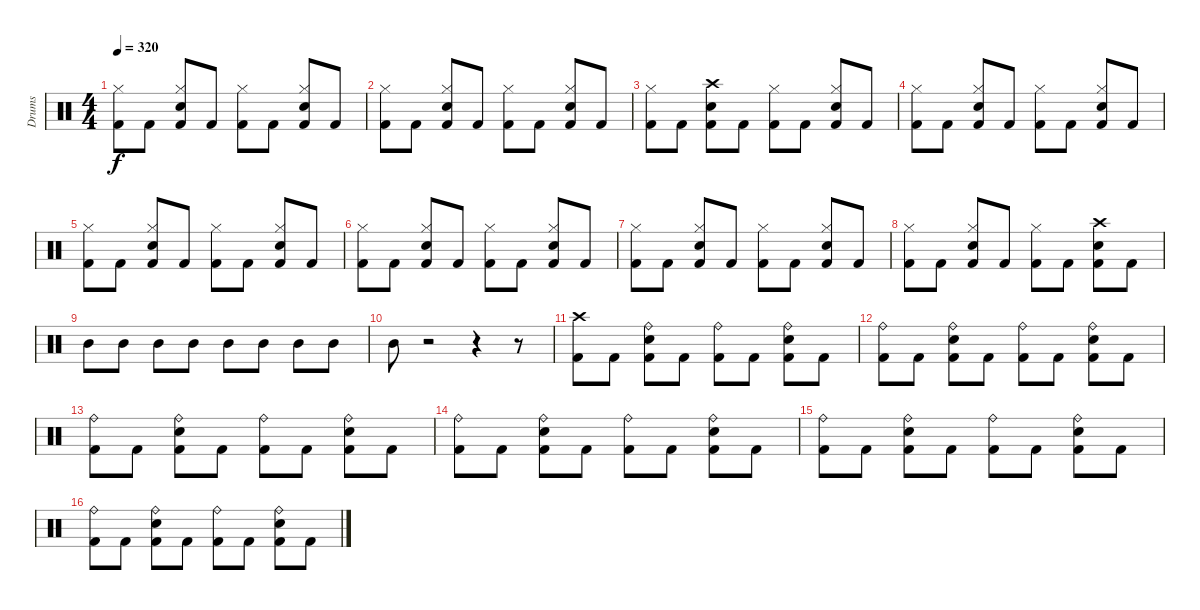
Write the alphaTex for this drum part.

\track ("Drums" "Drums") {instrument percussion}
\staff {score}
\articulation defaults
\ts (4 4)
\tempo 320
\clef neutral
\ks c
("Kick (hit) 2" "Hi-Hat (closed)").8{dy f} "Kick (hit) 2".8 ("Snare (hit) 2" "Hi-Hat (closed)" "Kick (hit) 2").8 "Kick (hit) 2".8 ("Kick (hit) 2" "Hi-Hat (closed)").8 "Kick (hit) 2".8 ("Kick (hit) 2" "Hi-Hat (closed)" "Snare (hit) 2").8 "Kick (hit) 2".8 |
("Kick (hit) 2" "Hi-Hat (closed)").8 "Kick (hit) 2".8 ("Snare (hit) 2" "Kick (hit) 2" "Hi-Hat (closed)").8 "Kick (hit) 2".8 ("Hi-Hat (closed)" "Kick (hit) 2").8 "Kick (hit) 2".8 ("Hi-Hat (closed)" "Snare (hit) 2" "Kick (hit) 2").8 "Kick (hit) 2".8 |
("Kick (hit) 2" "Hi-Hat (closed)").8 "Kick (hit) 2".8 ("Snare (hit) 2" "Crash high (hit)" "Kick (hit) 2").8 "Kick (hit) 2".8 ("Hi-Hat (closed)" "Kick (hit) 2").8 "Kick (hit) 2".8 ("Snare (hit) 2" "Kick (hit) 2" "Hi-Hat (closed)").8 "Kick (hit) 2".8 |
("Hi-Hat (closed)" "Kick (hit) 2").8 "Kick (hit) 2".8 ("Snare (hit) 2" "Hi-Hat (closed)" "Kick (hit) 2").8 "Kick (hit) 2".8 ("Kick (hit) 2" "Hi-Hat (closed)").8 "Kick (hit) 2".8 ("Kick (hit) 2" "Snare (hit) 2" "Hi-Hat (closed)").8 "Kick (hit) 2".8 |
("Kick (hit) 2" "Hi-Hat (closed)").8 "Kick (hit) 2".8 ("Hi-Hat (closed)" "Snare (hit) 2" "Kick (hit) 2").8 "Kick (hit) 2".8 ("Hi-Hat (closed)" "Kick (hit) 2").8 "Kick (hit) 2".8 ("Kick (hit) 2" "Hi-Hat (closed)" "Snare (hit) 2").8 "Kick (hit) 2".8 |
("Kick (hit) 2" "Hi-Hat (closed)").8 "Kick (hit) 2".8 ("Hi-Hat (closed)" "Snare (hit) 2" "Kick (hit) 2").8 "Kick (hit) 2".8 ("Hi-Hat (closed)" "Kick (hit) 2").8 "Kick (hit) 2".8 ("Kick (hit) 2" "Snare (hit) 2" "Hi-Hat (closed)").8 "Kick (hit) 2".8 |
("Kick (hit) 2" "Hi-Hat (closed)").8 "Kick (hit) 2".8 ("Snare (hit) 2" "Kick (hit) 2" "Hi-Hat (closed)").8 "Kick (hit) 2".8 ("Hi-Hat (closed)" "Kick (hit) 2").8 "Kick (hit) 2".8 ("Hi-Hat (closed)" "Kick (hit) 2" "Snare (hit) 2").8 "Kick (hit) 2".8 |
("Kick (hit) 2" "Hi-Hat (closed)").8 "Kick (hit) 2".8 ("Snare (hit) 2" "Kick (hit) 2" "Hi-Hat (closed)").8 "Kick (hit) 2".8 ("Hi-Hat (closed)" "Kick (hit) 2").8 "Kick (hit) 2".8 ("Snare (hit) 2" "Crash high (hit)" "Kick (hit) 2").8 "Kick (hit) 2".8 |
"Mid Tom (hit)".8 "Mid Tom (hit)".8 "Mid Tom (hit)".8 "Mid Tom (hit)".8 "Mid Tom (hit)".8 "Mid Tom (hit)".8 "Mid Tom (hit)".8 "Mid Tom (hit)".8 |
"Mid Tom (hit)".8 r.2 r.4 r.8 |
("Crash high (hit)" "Kick (hit) 2").8 "Kick (hit) 2".8 ("Kick (hit) 2" "Snare (hit) 2" "Ride (bell)").8 "Kick (hit) 2".8 ("Kick (hit) 2" "Ride (bell)").8 "Kick (hit) 2".8 ("Snare (hit) 2" "Kick (hit) 2" "Ride (bell)").8 "Kick (hit) 2".8 |
("Ride (bell)" "Kick (hit) 2").8 "Kick (hit) 2".8 ("Ride (bell)" "Kick (hit) 2" "Snare (hit) 2").8 "Kick (hit) 2".8 ("Ride (bell)" "Kick (hit) 2").8 "Kick (hit) 2".8 ("Kick (hit) 2" "Ride (bell)" "Snare (hit) 2").8 "Kick (hit) 2".8 |
("Ride (bell)" "Kick (hit) 2").8 "Kick (hit) 2".8 ("Ride (bell)" "Kick (hit) 2" "Snare (hit) 2").8 "Kick (hit) 2".8 ("Ride (bell)" "Kick (hit) 2").8 "Kick (hit) 2".8 ("Kick (hit) 2" "Ride (bell)" "Snare (hit) 2").8 "Kick (hit) 2".8 |
("Kick (hit) 2" "Ride (bell)").8 "Kick (hit) 2".8 ("Kick (hit) 2" "Ride (bell)" "Snare (hit) 2").8 "Kick (hit) 2".8 ("Ride (bell)" "Kick (hit) 2").8 "Kick (hit) 2".8 ("Ride (bell)" "Kick (hit) 2" "Snare (hit) 2").8 "Kick (hit) 2".8 |
("Kick (hit) 2" "Ride (bell)").8 "Kick (hit) 2".8 ("Ride (bell)" "Snare (hit) 2" "Kick (hit) 2").8 "Kick (hit) 2".8 ("Ride (bell)" "Kick (hit) 2").8 "Kick (hit) 2".8 ("Snare (hit) 2" "Ride (bell)" "Kick (hit) 2").8 "Kick (hit) 2".8 |
("Kick (hit) 2" "Ride (bell)").8 "Kick (hit) 2".8 ("Ride (bell)" "Snare (hit) 2" "Kick (hit) 2").8 "Kick (hit) 2".8 ("Ride (bell)" "Kick (hit) 2").8 "Kick (hit) 2".8 ("Snare (hit) 2" "Ride (bell)" "Kick (hit) 2").8 "Kick (hit) 2".8
